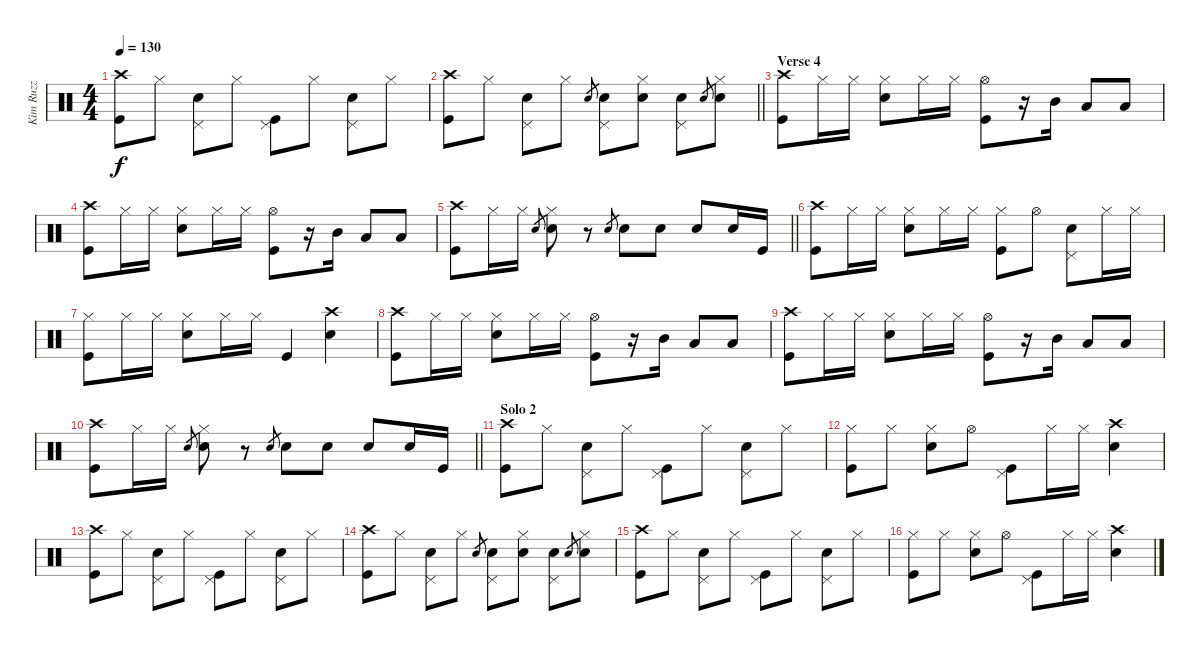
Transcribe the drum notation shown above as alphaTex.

\track ("Kim Ruzz" "Kim Ruzz") {instrument percussion}
\staff {score}
\articulation defaults
\ts (4 4)
\tempo 130
\clef neutral
\ks c
("Crash high (hit)" "Kick (hit)").8{dy f} "Hi-Hat (closed)".8 ("Pedal Hi-Hat (hit)" "Snare (hit) 2").8 "Hi-Hat (closed)".8 ("Pedal Hi-Hat (hit)" "Kick (hit)").8 "Hi-Hat (closed)".8 ("Pedal Hi-Hat (hit)" "Snare (hit) 2").8 "Hi-Hat (closed)".8 |
\barLineRight lightlight
("Crash high (hit)" "Kick (hit)").8 "Hi-Hat (closed)".8 ("Pedal Hi-Hat (hit)" "Snare (hit) 2").8 "Hi-Hat (closed)".8 "Snare (hit) 2".8{gr} ("Pedal Hi-Hat (hit)" "Snare (hit) 2").8 ("Hi-Hat (closed)" "Snare (hit) 2").8 ("Pedal Hi-Hat (hit)" "Snare (hit) 2").8 "Snare (hit) 2".8{gr} ("Hi-Hat (closed)" "Snare (hit) 2").8 |
\section ("" "Verse 4")
("Crash high (hit)" "Kick (hit)").8 "Hi-Hat (closed)".16 "Hi-Hat (closed)".16 ("Hi-Hat (closed)" "Snare (hit) 2").8 "Hi-Hat (closed)".16 "Hi-Hat (closed)".16 ("Hi-Hat (open)" "Kick (hit)").8 r.16 "Mid Tom (hit)".16 "Low Tom (hit)".8 "Low Tom (hit)".8 |
("Crash high (hit)" "Kick (hit)").8 "Hi-Hat (closed)".16 "Hi-Hat (closed)".16 ("Hi-Hat (closed)" "Snare (hit) 2").8 "Hi-Hat (closed)".16 "Hi-Hat (closed)".16 ("Hi-Hat (open)" "Kick (hit)").8 r.16 "Mid Tom (hit)".16 "Low Tom (hit)".8 "Low Tom (hit)".8 |
\barLineRight lightlight
("Crash high (hit)" "Kick (hit)").8 "Hi-Hat (closed)".16 "Hi-Hat (closed)".16 "Snare (hit) 2".8{gr} ("Hi-Hat (closed)" "Snare (hit) 2").8 r.8 "Snare (hit) 2".8{gr} "Snare (hit) 2".8 "Snare (hit) 2".8 "Snare (hit) 2".8 "Snare (hit) 2".16 "Kick (hit)".16 |
("Crash high (hit)" "Kick (hit)").8 "Hi-Hat (closed)".16 "Hi-Hat (closed)".16 ("Hi-Hat (closed)" "Snare (hit) 2").8 "Hi-Hat (closed)".16 "Hi-Hat (closed)".16 ("Hi-Hat (closed)" "Kick (hit)").8 "Hi-Hat (open)".8 ("Pedal Hi-Hat (hit)" "Snare (hit) 2").8 "Hi-Hat (closed)".16 "Hi-Hat (closed)".16 |
("Hi-Hat (closed)" "Kick (hit)").8 "Hi-Hat (closed)".16 "Hi-Hat (closed)".16 ("Hi-Hat (closed)" "Snare (hit) 2").8 "Hi-Hat (closed)".16 "Hi-Hat (closed)".16 "Kick (hit)".4 ("Crash high (hit)" "Snare (hit) 2").4 |
("Crash high (hit)" "Kick (hit)").8 "Hi-Hat (closed)".16 "Hi-Hat (closed)".16 ("Hi-Hat (closed)" "Snare (hit) 2").8 "Hi-Hat (closed)".16 "Hi-Hat (closed)".16 ("Hi-Hat (open)" "Kick (hit)").8 r.16 "Mid Tom (hit)".16 "Low Tom (hit)".8 "Low Tom (hit)".8 |
("Crash high (hit)" "Kick (hit)").8 "Hi-Hat (closed)".16 "Hi-Hat (closed)".16 ("Hi-Hat (closed)" "Snare (hit) 2").8 "Hi-Hat (closed)".16 "Hi-Hat (closed)".16 ("Hi-Hat (open)" "Kick (hit)").8 r.16 "Mid Tom (hit)".16 "Low Tom (hit)".8 "Low Tom (hit)".8 |
\barLineRight lightlight
("Crash high (hit)" "Kick (hit)").8 "Hi-Hat (closed)".16 "Hi-Hat (closed)".16 "Snare (hit) 2".8{gr} ("Hi-Hat (closed)" "Snare (hit) 2").8 r.8 "Snare (hit) 2".8{gr} "Snare (hit) 2".8 "Snare (hit) 2".8 "Snare (hit) 2".8 "Snare (hit) 2".16 "Kick (hit)".16 |
\section ("" "Solo 2")
("Crash high (hit)" "Kick (hit)").8 "Hi-Hat (closed)".8 ("Pedal Hi-Hat (hit)" "Snare (hit) 2").8 "Hi-Hat (closed)".8 ("Pedal Hi-Hat (hit)" "Kick (hit)").8 "Hi-Hat (closed)".8 ("Pedal Hi-Hat (hit)" "Snare (hit) 2").8 "Hi-Hat (closed)".8 |
("Hi-Hat (closed)" "Kick (hit)").8 "Hi-Hat (closed)".8 ("Hi-Hat (closed)" "Snare (hit) 2").8 "Hi-Hat (open)".8 ("Pedal Hi-Hat (hit)" "Kick (hit)").8 "Hi-Hat (closed)".16 "Hi-Hat (closed)".16 ("Crash high (hit)" "Snare (hit) 2").4 |
("Crash high (hit)" "Kick (hit)").8 "Hi-Hat (closed)".8 ("Pedal Hi-Hat (hit)" "Snare (hit) 2").8 "Hi-Hat (closed)".8 ("Pedal Hi-Hat (hit)" "Kick (hit)").8 "Hi-Hat (closed)".8 ("Pedal Hi-Hat (hit)" "Snare (hit) 2").8 "Hi-Hat (closed)".8 |
("Crash high (hit)" "Kick (hit)").8 "Hi-Hat (closed)".8 ("Pedal Hi-Hat (hit)" "Snare (hit) 2").8 "Hi-Hat (closed)".8 "Snare (hit) 2".8{gr} ("Pedal Hi-Hat (hit)" "Snare (hit) 2").8 ("Hi-Hat (closed)" "Snare (hit) 2").8 ("Pedal Hi-Hat (hit)" "Snare (hit) 2").8 "Snare (hit) 2".8{gr} ("Hi-Hat (closed)" "Snare (hit) 2").8 |
("Crash high (hit)" "Kick (hit)").8 "Hi-Hat (closed)".8 ("Pedal Hi-Hat (hit)" "Snare (hit) 2").8 "Hi-Hat (closed)".8 ("Pedal Hi-Hat (hit)" "Kick (hit)").8 "Hi-Hat (closed)".8 ("Pedal Hi-Hat (hit)" "Snare (hit) 2").8 "Hi-Hat (closed)".8 |
("Hi-Hat (closed)" "Kick (hit)").8 "Hi-Hat (closed)".8 ("Hi-Hat (closed)" "Snare (hit) 2").8 "Hi-Hat (open)".8 ("Pedal Hi-Hat (hit)" "Kick (hit)").8 "Hi-Hat (closed)".16 "Hi-Hat (closed)".16 ("Crash high (hit)" "Snare (hit) 2").4
